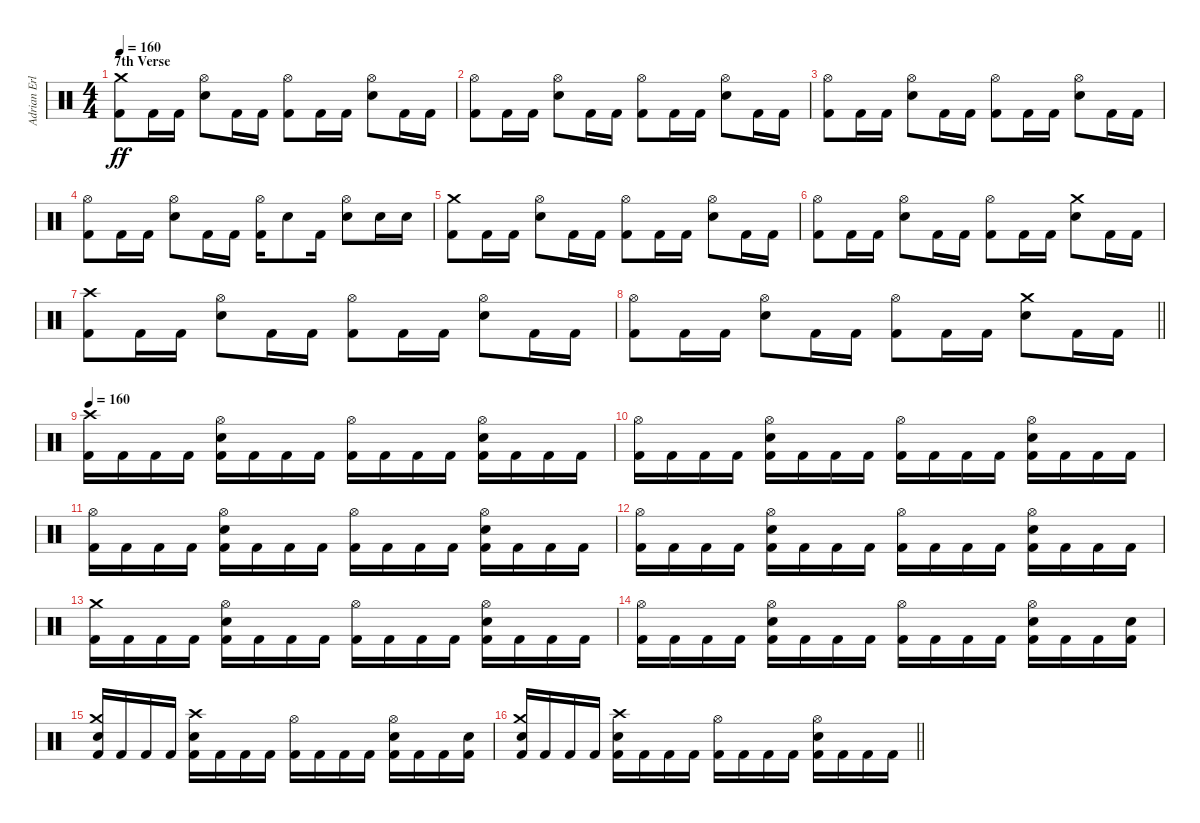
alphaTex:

\track ("Adrian Erlandsson" "Adrian Erl") {instrument percussion}
\staff {score}
\articulation defaults
\ts (4 4)
\section ("" "7th Verse")
\tempo 160
\clef neutral
\ks c
("Kick (hit) 2" "Crash medium (hit)").8{dy ff} "Kick (hit) 2".16 "Kick (hit) 2".16 ("Electric Snare (hit)" "Hi-Hat (open)").8 "Kick (hit) 2".16 "Kick (hit) 2".16 ("Kick (hit) 2" "Hi-Hat (open)").8 "Kick (hit) 2".16 "Kick (hit) 2".16 ("Electric Snare (hit)" "Hi-Hat (open)").8 "Kick (hit) 2".16 "Kick (hit) 2".16 |
("Kick (hit) 2" "Hi-Hat (open)").8 "Kick (hit) 2".16 "Kick (hit) 2".16 ("Electric Snare (hit)" "Hi-Hat (open)").8 "Kick (hit) 2".16 "Kick (hit) 2".16 ("Kick (hit) 2" "Hi-Hat (open)").8 "Kick (hit) 2".16 "Kick (hit) 2".16 ("Electric Snare (hit)" "Hi-Hat (open)").8 "Kick (hit) 2".16 "Kick (hit) 2".16 |
("Kick (hit) 2" "Hi-Hat (open)").8 "Kick (hit) 2".16 "Kick (hit) 2".16 ("Electric Snare (hit)" "Hi-Hat (open)").8 "Kick (hit) 2".16 "Kick (hit) 2".16 ("Kick (hit) 2" "Hi-Hat (open)").8 "Kick (hit) 2".16 "Kick (hit) 2".16 ("Electric Snare (hit)" "Hi-Hat (open)").8 "Kick (hit) 2".16 "Kick (hit) 2".16 |
("Kick (hit) 2" "Hi-Hat (open)").8 "Kick (hit) 2".16 "Kick (hit) 2".16 ("Electric Snare (hit)" "Hi-Hat (open)").8 "Kick (hit) 2".16 "Kick (hit) 2".16 ("Kick (hit) 2" "Hi-Hat (open)").16 "Electric Snare (hit)".8 "Kick (hit) 2".16 ("Electric Snare (hit)" "Hi-Hat (open)").8 "Electric Snare (hit)".16 "Electric Snare (hit)".16 |
("Kick (hit) 2" "Crash medium (hit)").8 "Kick (hit) 2".16 "Kick (hit) 2".16 ("Electric Snare (hit)" "Hi-Hat (open)").8 "Kick (hit) 2".16 "Kick (hit) 2".16 ("Kick (hit) 2" "Hi-Hat (open)").8 "Kick (hit) 2".16 "Kick (hit) 2".16 ("Electric Snare (hit)" "Hi-Hat (open)").8 "Kick (hit) 2".16 "Kick (hit) 2".16 |
("Kick (hit) 2" "Hi-Hat (open)").8 "Kick (hit) 2".16 "Kick (hit) 2".16 ("Electric Snare (hit)" "Hi-Hat (open)").8 "Kick (hit) 2".16 "Kick (hit) 2".16 ("Kick (hit) 2" "Hi-Hat (open)").8 "Kick (hit) 2".16 "Kick (hit) 2".16 ("Electric Snare (hit)" "Crash medium (hit)").8 "Kick (hit) 2".16 "Kick (hit) 2".16 |
("Kick (hit) 2" "Crash high (hit)").8 "Kick (hit) 2".16 "Kick (hit) 2".16 ("Electric Snare (hit)" "Hi-Hat (open)").8 "Kick (hit) 2".16 "Kick (hit) 2".16 ("Kick (hit) 2" "Hi-Hat (open)").8 "Kick (hit) 2".16 "Kick (hit) 2".16 ("Electric Snare (hit)" "Hi-Hat (open)").8 "Kick (hit) 2".16 "Kick (hit) 2".16 |
\barLineRight lightlight
("Kick (hit) 2" "Hi-Hat (open)").8 "Kick (hit) 2".16 "Kick (hit) 2".16 ("Electric Snare (hit)" "Hi-Hat (open)").8 "Kick (hit) 2".16 "Kick (hit) 2".16 ("Kick (hit) 2" "Hi-Hat (open)").8 "Kick (hit) 2".16 "Kick (hit) 2".16 ("Electric Snare (hit)" "Crash medium (hit)").8 "Kick (hit) 2".16 "Kick (hit) 2".16 |
\tempo 160
("Kick (hit) 2" "Crash high (hit)").16 "Kick (hit) 2".16 "Kick (hit) 2".16 "Kick (hit) 2".16 ("Kick (hit) 2" "Electric Snare (hit)" "Hi-Hat (open)").16 "Kick (hit) 2".16 "Kick (hit) 2".16 "Kick (hit) 2".16 ("Kick (hit) 2" "Hi-Hat (open)").16 "Kick (hit) 2".16 "Kick (hit) 2".16 "Kick (hit) 2".16 ("Kick (hit) 2" "Electric Snare (hit)" "Hi-Hat (open)").16 "Kick (hit) 2".16 "Kick (hit) 2".16 "Kick (hit) 2".16 |
("Kick (hit) 2" "Hi-Hat (open)").16 "Kick (hit) 2".16 "Kick (hit) 2".16 "Kick (hit) 2".16 ("Kick (hit) 2" "Electric Snare (hit)" "Hi-Hat (open)").16 "Kick (hit) 2".16 "Kick (hit) 2".16 "Kick (hit) 2".16 ("Kick (hit) 2" "Hi-Hat (open)").16 "Kick (hit) 2".16 "Kick (hit) 2".16 "Kick (hit) 2".16 ("Kick (hit) 2" "Electric Snare (hit)" "Hi-Hat (open)").16 "Kick (hit) 2".16 "Kick (hit) 2".16 "Kick (hit) 2".16 |
("Kick (hit) 2" "Hi-Hat (open)").16 "Kick (hit) 2".16 "Kick (hit) 2".16 "Kick (hit) 2".16 ("Kick (hit) 2" "Electric Snare (hit)" "Hi-Hat (open)").16 "Kick (hit) 2".16 "Kick (hit) 2".16 "Kick (hit) 2".16 ("Kick (hit) 2" "Hi-Hat (open)").16 "Kick (hit) 2".16 "Kick (hit) 2".16 "Kick (hit) 2".16 ("Kick (hit) 2" "Electric Snare (hit)" "Hi-Hat (open)").16 "Kick (hit) 2".16 "Kick (hit) 2".16 "Kick (hit) 2".16 |
("Kick (hit) 2" "Hi-Hat (open)").16 "Kick (hit) 2".16 "Kick (hit) 2".16 "Kick (hit) 2".16 ("Kick (hit) 2" "Electric Snare (hit)" "Hi-Hat (open)").16 "Kick (hit) 2".16 "Kick (hit) 2".16 "Kick (hit) 2".16 ("Kick (hit) 2" "Hi-Hat (open)").16 "Kick (hit) 2".16 "Kick (hit) 2".16 "Kick (hit) 2".16 ("Kick (hit) 2" "Electric Snare (hit)" "Hi-Hat (open)").16 "Kick (hit) 2".16 "Kick (hit) 2".16 "Kick (hit) 2".16 |
("Kick (hit) 2" "Crash medium (hit)").16 "Kick (hit) 2".16 "Kick (hit) 2".16 "Kick (hit) 2".16 ("Kick (hit) 2" "Electric Snare (hit)" "Hi-Hat (open)").16 "Kick (hit) 2".16 "Kick (hit) 2".16 "Kick (hit) 2".16 ("Kick (hit) 2" "Hi-Hat (open)").16 "Kick (hit) 2".16 "Kick (hit) 2".16 "Kick (hit) 2".16 ("Kick (hit) 2" "Electric Snare (hit)" "Hi-Hat (open)").16 "Kick (hit) 2".16 "Kick (hit) 2".16 "Kick (hit) 2".16 |
("Kick (hit) 2" "Hi-Hat (open)").16 "Kick (hit) 2".16 "Kick (hit) 2".16 "Kick (hit) 2".16 ("Kick (hit) 2" "Electric Snare (hit)" "Hi-Hat (open)").16 "Kick (hit) 2".16 "Kick (hit) 2".16 "Kick (hit) 2".16 ("Kick (hit) 2" "Hi-Hat (open)").16 "Kick (hit) 2".16 "Kick (hit) 2".16 "Kick (hit) 2".16 ("Kick (hit) 2" "Electric Snare (hit)" "Hi-Hat (open)").16 "Kick (hit) 2".16 "Kick (hit) 2".16 ("Kick (hit) 2" "Electric Snare (hit)").16 |
("Kick (hit) 2" "Electric Snare (hit)" "Crash medium (hit)").16 "Kick (hit) 2".16 "Kick (hit) 2".16 "Kick (hit) 2".16 ("Kick (hit) 2" "Electric Snare (hit)" "Crash high (hit)").16 "Kick (hit) 2".16 "Kick (hit) 2".16 "Kick (hit) 2".16 ("Kick (hit) 2" "Hi-Hat (open)").16 "Kick (hit) 2".16 "Kick (hit) 2".16 "Kick (hit) 2".16 ("Kick (hit) 2" "Electric Snare (hit)" "Hi-Hat (open)").16 "Kick (hit) 2".16 "Kick (hit) 2".16 ("Kick (hit) 2" "Electric Snare (hit)").16 |
\barLineRight lightlight
("Kick (hit) 2" "Electric Snare (hit)" "Crash medium (hit)").16 "Kick (hit) 2".16 "Kick (hit) 2".16 "Kick (hit) 2".16 ("Kick (hit) 2" "Electric Snare (hit)" "Crash high (hit)").16 "Kick (hit) 2".16 "Kick (hit) 2".16 "Kick (hit) 2".16 ("Kick (hit) 2" "Hi-Hat (open)").16 "Kick (hit) 2".16 "Kick (hit) 2".16 "Kick (hit) 2".16 ("Kick (hit) 2" "Electric Snare (hit)" "Hi-Hat (open)").16 "Kick (hit) 2".16 "Kick (hit) 2".16 "Kick (hit) 2".16
